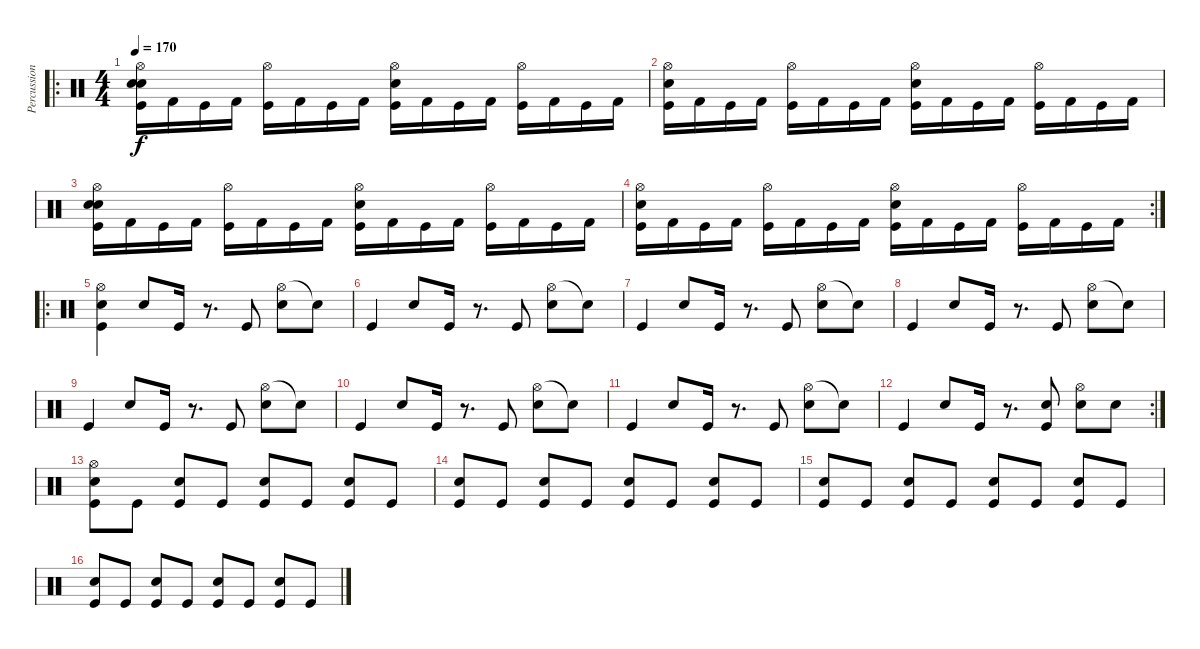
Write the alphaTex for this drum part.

\track ("Percussions" "Percussion") {instrument percussion}
\staff {score}
\articulation defaults
\ro
\ts (4 4)
\tempo 170
\clef neutral
\ks c
("Hi-Hat (open)" "Electric Snare (hit)" "Snare (hit) 2" "Kick (hit)").16{dy f} "Kick (hit) 2".16 "Kick (hit)".16 "Kick (hit) 2".16 ("Hi-Hat (open)" "Kick (hit)").16 "Kick (hit) 2".16 "Kick (hit)".16 "Kick (hit) 2".16 ("Hi-Hat (open)" "Electric Snare (hit)" "Kick (hit)").16 "Kick (hit) 2".16 "Kick (hit)".16 "Kick (hit) 2".16 ("Hi-Hat (open)" "Kick (hit)").16 "Kick (hit) 2".16 "Kick (hit)".16 "Kick (hit) 2".16 |
("Hi-Hat (open)" "Electric Snare (hit)" "Kick (hit)").16 "Kick (hit) 2".16 "Kick (hit)".16 "Kick (hit) 2".16 ("Hi-Hat (open)" "Kick (hit)").16 "Kick (hit) 2".16 "Kick (hit)".16 "Kick (hit) 2".16 ("Hi-Hat (open)" "Electric Snare (hit)" "Kick (hit)").16 "Kick (hit) 2".16 "Kick (hit)".16 "Kick (hit) 2".16 ("Hi-Hat (open)" "Kick (hit)").16 "Kick (hit) 2".16 "Kick (hit)".16 "Kick (hit) 2".16 |
("Hi-Hat (open)" "Electric Snare (hit)" "Snare (hit) 2" "Kick (hit)").16 "Kick (hit) 2".16 "Kick (hit)".16 "Kick (hit) 2".16 ("Hi-Hat (open)" "Kick (hit)").16 "Kick (hit) 2".16 "Kick (hit)".16 "Kick (hit) 2".16 ("Hi-Hat (open)" "Electric Snare (hit)" "Kick (hit)").16 "Kick (hit) 2".16 "Kick (hit)".16 "Kick (hit) 2".16 ("Hi-Hat (open)" "Kick (hit)").16 "Kick (hit) 2".16 "Kick (hit)".16 "Kick (hit) 2".16 |
\rc 2
("Hi-Hat (open)" "Electric Snare (hit)" "Kick (hit)").16 "Kick (hit) 2".16 "Kick (hit)".16 "Kick (hit) 2".16 ("Hi-Hat (open)" "Kick (hit)").16 "Kick (hit) 2".16 "Kick (hit)".16 "Kick (hit) 2".16 ("Hi-Hat (open)" "Electric Snare (hit)" "Kick (hit)").16 "Kick (hit) 2".16 "Kick (hit)".16 "Kick (hit) 2".16 ("Hi-Hat (open)" "Kick (hit)").16 "Kick (hit) 2".16 "Kick (hit)".16 "Kick (hit) 2".16 |
\ro
("Hi-Hat (open)" "Snare (hit) 2" "Kick (hit)").4 "Electric Snare (hit)".8 "Kick (hit)".16 r.8{d} "Kick (hit)".8 ("Hi-Hat (open)" "Electric Snare (hit)").8 "Snare (hit)"{t}.8 |
"Kick (hit)".4 "Electric Snare (hit)".8 "Kick (hit)".16 r.8{d} "Kick (hit)".8 ("Hi-Hat (open)" "Electric Snare (hit)").8 "Snare (hit)"{t}.8 |
"Kick (hit)".4 "Electric Snare (hit)".8 "Kick (hit)".16 r.8{d} "Kick (hit)".8 ("Hi-Hat (open)" "Electric Snare (hit)").8 "Snare (hit)"{t}.8 |
"Kick (hit)".4 "Electric Snare (hit)".8 "Kick (hit)".16 r.8{d} "Kick (hit)".8 ("Hi-Hat (open)" "Electric Snare (hit)").8 "Snare (hit)"{t}.8 |
"Kick (hit)".4 "Electric Snare (hit)".8 "Kick (hit)".16 r.8{d} "Kick (hit)".8 ("Hi-Hat (open)" "Electric Snare (hit)").8 "Snare (hit)"{t}.8 |
"Kick (hit)".4 "Electric Snare (hit)".8 "Kick (hit)".16 r.8{d} "Kick (hit)".8 ("Hi-Hat (open)" "Electric Snare (hit)").8 "Snare (hit)"{t}.8 |
"Kick (hit)".4 "Electric Snare (hit)".8 "Kick (hit)".16 r.8{d} "Kick (hit)".8 ("Hi-Hat (open)" "Electric Snare (hit)").8 "Snare (hit)"{t}.8 |
\rc 2 "Kick (hit)".4 "Electric Snare (hit)".8 "Kick (hit)".16
r.8{d} ("Snare (hit) 2" "Kick (hit)").8 ("Hi-Hat (open)" "Snare (hit) 2").8 "Snare (hit) 2".8 |
("Hi-Hat (open)" "Electric Snare (hit)" "Kick (hit)").8 "Kick (hit)".8 ("Electric Snare (hit)" "Kick (hit)").8 "Kick (hit)".8 ("Electric Snare (hit)" "Kick (hit)").8 "Kick (hit)".8 ("Electric Snare (hit)" "Kick (hit)").8 "Kick (hit)".8 |
("Electric Snare (hit)" "Kick (hit)").8 "Kick (hit)".8 ("Electric Snare (hit)" "Kick (hit)").8 "Kick (hit)".8 ("Electric Snare (hit)" "Kick (hit)").8 "Kick (hit)".8 ("Electric Snare (hit)" "Kick (hit)").8 "Kick (hit)".8 |
("Electric Snare (hit)" "Kick (hit)").8 "Kick (hit)".8 ("Electric Snare (hit)" "Kick (hit)").8 "Kick (hit)".8 ("Electric Snare (hit)" "Kick (hit)").8 "Kick (hit)".8 ("Electric Snare (hit)" "Kick (hit)").8 "Kick (hit)".8 |
("Electric Snare (hit)" "Kick (hit)").8 "Kick (hit)".8 ("Electric Snare (hit)" "Kick (hit)").8 "Kick (hit)".8 ("Electric Snare (hit)" "Kick (hit)").8 "Kick (hit)".8 ("Electric Snare (hit)" "Kick (hit)").8 "Kick (hit)".8
